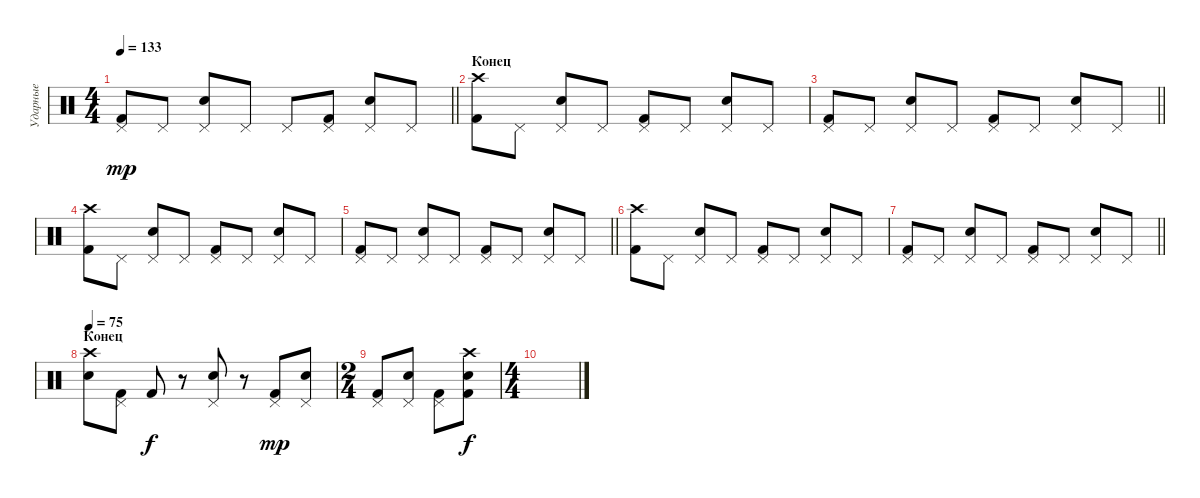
\track ("Ударные" "Ударные") {instrument percussion}
\staff {score}
\articulation defaults
\ts (4 4)
\tempo 133
\clef neutral
\barLineRight lightlight
\ks c
("Kick (hit) 2" "Pedal Hi-Hat (hit)").8{dy mp} "Pedal Hi-Hat (hit)".8 ("Electric Snare (hit)" "Pedal Hi-Hat (hit)").8 "Pedal Hi-Hat (hit)".8 "Pedal Hi-Hat (hit)".8 ("Kick (hit) 2" "Pedal Hi-Hat (hit)").8 ("Electric Snare (hit)" "Pedal Hi-Hat (hit)").8 "Pedal Hi-Hat (hit)".8 |
\section ("" "Конец")
("Kick (hit) 2" "Crash high (hit)").8 "Pedal Hi-Hat (hit)".8 ("Electric Snare (hit)" "Pedal Hi-Hat (hit)").8 "Pedal Hi-Hat (hit)".8 ("Kick (hit) 2" "Pedal Hi-Hat (hit)").8 "Pedal Hi-Hat (hit)".8 ("Electric Snare (hit)" "Pedal Hi-Hat (hit)").8 "Pedal Hi-Hat (hit)".8 |
\barLineRight lightlight
("Kick (hit) 2" "Pedal Hi-Hat (hit)").8 "Pedal Hi-Hat (hit)".8 ("Electric Snare (hit)" "Pedal Hi-Hat (hit)").8 "Pedal Hi-Hat (hit)".8 ("Kick (hit) 2" "Pedal Hi-Hat (hit)").8 "Pedal Hi-Hat (hit)".8 ("Electric Snare (hit)" "Pedal Hi-Hat (hit)").8 "Pedal Hi-Hat (hit)".8 |
("Kick (hit) 2" "Crash high (hit)").8 "Pedal Hi-Hat (hit)".8 ("Electric Snare (hit)" "Pedal Hi-Hat (hit)").8 "Pedal Hi-Hat (hit)".8 ("Kick (hit) 2" "Pedal Hi-Hat (hit)").8 "Pedal Hi-Hat (hit)".8 ("Electric Snare (hit)" "Pedal Hi-Hat (hit)").8 "Pedal Hi-Hat (hit)".8 |
\barLineRight lightlight
("Kick (hit) 2" "Pedal Hi-Hat (hit)").8 "Pedal Hi-Hat (hit)".8 ("Electric Snare (hit)" "Pedal Hi-Hat (hit)").8 "Pedal Hi-Hat (hit)".8 ("Kick (hit) 2" "Pedal Hi-Hat (hit)").8 "Pedal Hi-Hat (hit)".8 ("Electric Snare (hit)" "Pedal Hi-Hat (hit)").8 "Pedal Hi-Hat (hit)".8 |
("Kick (hit) 2" "Crash high (hit)").8 "Pedal Hi-Hat (hit)".8 ("Electric Snare (hit)" "Pedal Hi-Hat (hit)").8 "Pedal Hi-Hat (hit)".8 ("Kick (hit) 2" "Pedal Hi-Hat (hit)").8 "Pedal Hi-Hat (hit)".8 ("Electric Snare (hit)" "Pedal Hi-Hat (hit)").8 "Pedal Hi-Hat (hit)".8 |
\barLineRight lightlight
("Kick (hit) 2" "Pedal Hi-Hat (hit)").8 "Pedal Hi-Hat (hit)".8 ("Electric Snare (hit)" "Pedal Hi-Hat (hit)").8 "Pedal Hi-Hat (hit)".8 ("Kick (hit) 2" "Pedal Hi-Hat (hit)").8 "Pedal Hi-Hat (hit)".8 ("Electric Snare (hit)" "Pedal Hi-Hat (hit)").8 "Pedal Hi-Hat (hit)".8 |
\section ("" "Конец")
\tempo 75
("Electric Snare (hit)" "Crash high (hit)").8 ("Kick (hit) 2" "Pedal Hi-Hat (hit)").8 "Kick (hit) 2".8{dy f} r.8 ("Electric Snare (hit)" "Pedal Hi-Hat (hit)").8 r.8 ("Kick (hit) 2" "Pedal Hi-Hat (hit)").8{dy mp} ("Electric Snare (hit)" "Pedal Hi-Hat (hit)").8 |
\ts (2 4)
("Kick (hit) 2" "Pedal Hi-Hat (hit)").8 ("Electric Snare (hit)" "Pedal Hi-Hat (hit)").8 ("Kick (hit) 2" "Pedal Hi-Hat (hit)").8 ("Electric Snare (hit)" "Kick (hit) 2" "Crash high (hit)").8{dy f} |
\ts (4 4)
